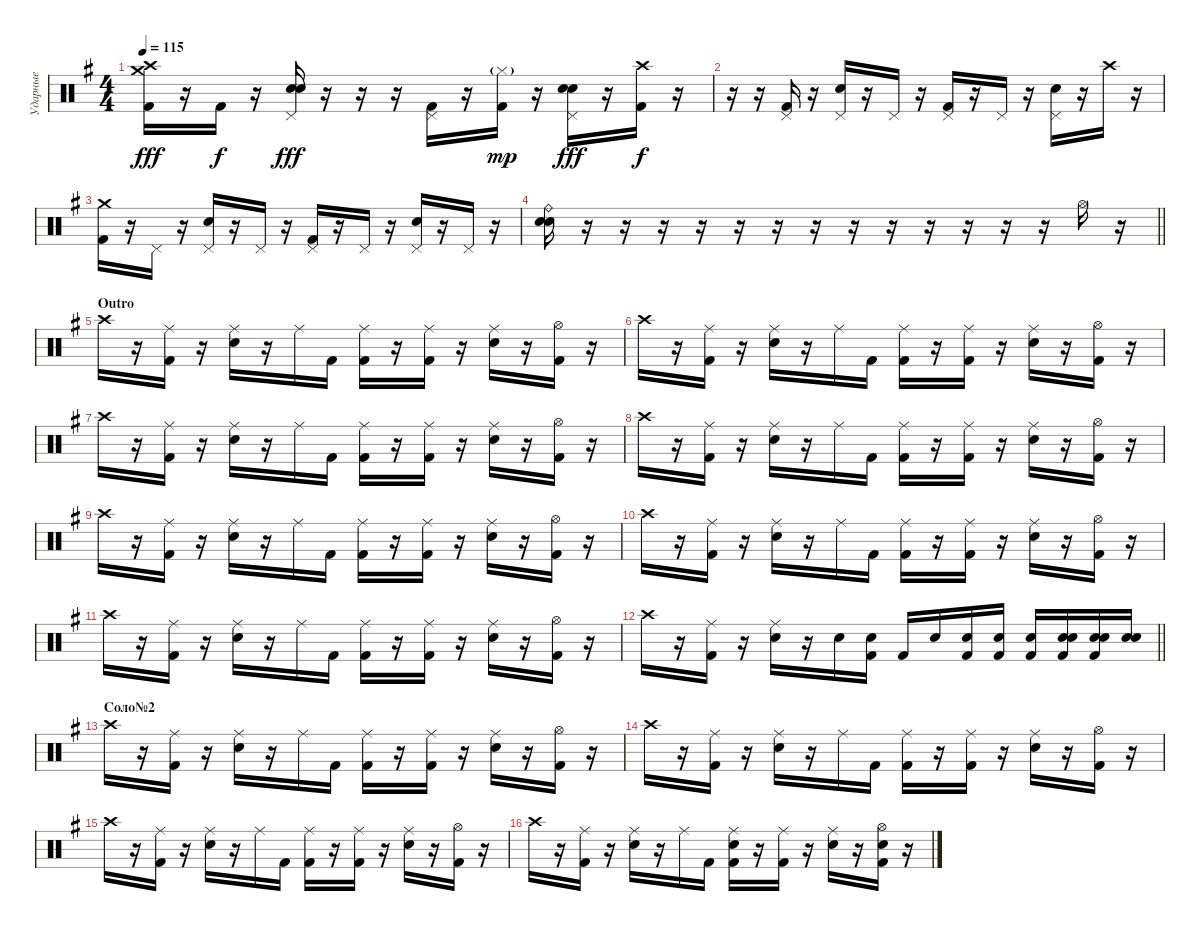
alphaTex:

\track ("Ударные" "Ударные") {instrument percussion}
\staff {score}
\articulation defaults
\ts (4 4)
\tempo 115
\clef neutral
\ks g
("Crash high (hit)" "Crash medium (hit)" "Kick (hit) 2").16{dy fff volume 16} r.16 "Kick (hit) 2".16{dy f} r.16 ("Pedal Hi-Hat (hit)" "Electric Snare (hit)" "Electric Snare (hit)").16{dy fff} r.16 r.16 r.16 ("Pedal Hi-Hat (hit)" "Kick (hit) 2").16 r.16 ("Hi-Hat (closed)"{g} "Kick (hit) 2").16{dy mp} r.16 ("Pedal Hi-Hat (hit)" "Electric Snare (hit)" "Electric Snare (hit)").16{dy fff} r.16 ("Crash high (hit)" "Kick (hit) 2").16{dy f} r.16 |
r.16 r.16 ("Pedal Hi-Hat (hit)" "Kick (hit) 2").16 r.16 ("Pedal Hi-Hat (hit)" "Electric Snare (hit)").16 r.16 "Pedal Hi-Hat (hit)".16 r.16 ("Pedal Hi-Hat (hit)" "Kick (hit) 2").16 r.16 "Pedal Hi-Hat (hit)".16 r.16 ("Pedal Hi-Hat (hit)" "Electric Snare (hit)").16 r.16 "Crash high (hit)".16 r.16 |
("Crash medium (hit)" "Kick (hit) 2").16 r.16 "Pedal Hi-Hat (hit)".16 r.16 ("Pedal Hi-Hat (hit)" "Electric Snare (hit)").16 r.16 "Pedal Hi-Hat (hit)".16 r.16 ("Pedal Hi-Hat (hit)" "Kick (hit) 2").16 r.16 "Pedal Hi-Hat (hit)".16 r.16 ("Pedal Hi-Hat (hit)" "Electric Snare (hit)").16 r.16 "Pedal Hi-Hat (hit)".16 r.16 |
\barLineRight lightlight
("Ride (bell)" "Electric Snare (hit)" "Snare (hit) 2").16 r.16 r.16 r.16 r.16 r.16 r.16 r.16 r.16 r.16 r.16 r.16 r.16 r.16 "Hi-Hat (open)".16 r.16 |
\section ("" "Outro")
"Crash high (hit)".16 r.16 ("Ride (middle)" "Kick (hit) 2").16 r.16 ("Ride (middle)" "Electric Snare (hit)").16 r.16 "Ride (middle)".16 "Kick (hit) 2".16 ("Ride (middle)" "Kick (hit) 2").16 r.16 ("Ride (middle)" "Kick (hit) 2").16 r.16 ("Ride (middle)" "Electric Snare (hit)").16 r.16 ("Hi-Hat (open)" "Kick (hit) 2").16 r.16 |
"Crash high (hit)".16 r.16 ("Ride (middle)" "Kick (hit) 2").16 r.16 ("Ride (middle)" "Electric Snare (hit)").16 r.16 "Ride (middle)".16 "Kick (hit) 2".16 ("Ride (middle)" "Kick (hit) 2").16 r.16 ("Ride (middle)" "Kick (hit) 2").16 r.16 ("Ride (middle)" "Electric Snare (hit)").16 r.16 ("Hi-Hat (open)" "Kick (hit) 2").16 r.16 |
"Crash high (hit)".16 r.16 ("Ride (middle)" "Kick (hit) 2").16 r.16 ("Ride (middle)" "Electric Snare (hit)").16 r.16 "Ride (middle)".16 "Kick (hit) 2".16 ("Ride (middle)" "Kick (hit) 2").16 r.16 ("Ride (middle)" "Kick (hit) 2").16 r.16 ("Ride (middle)" "Electric Snare (hit)").16 r.16 ("Hi-Hat (open)" "Kick (hit) 2").16 r.16 |
"Crash high (hit)".16 r.16 ("Ride (middle)" "Kick (hit) 2").16 r.16 ("Ride (middle)" "Electric Snare (hit)").16 r.16 "Ride (middle)".16 "Kick (hit) 2".16 ("Ride (middle)" "Kick (hit) 2").16 r.16 ("Ride (middle)" "Kick (hit) 2").16 r.16 ("Ride (middle)" "Electric Snare (hit)").16 r.16 ("Hi-Hat (open)" "Kick (hit) 2").16 r.16 |
"Crash high (hit)".16 r.16 ("Ride (middle)" "Kick (hit) 2").16 r.16 ("Ride (middle)" "Electric Snare (hit)").16 r.16 "Ride (middle)".16 "Kick (hit) 2".16 ("Ride (middle)" "Kick (hit) 2").16 r.16 ("Ride (middle)" "Kick (hit) 2").16 r.16 ("Ride (middle)" "Electric Snare (hit)").16 r.16 ("Hi-Hat (open)" "Kick (hit) 2").16 r.16 |
"Crash high (hit)".16 r.16 ("Ride (middle)" "Kick (hit) 2").16 r.16 ("Ride (middle)" "Electric Snare (hit)").16 r.16 "Ride (middle)".16 "Kick (hit) 2".16 ("Ride (middle)" "Kick (hit) 2").16 r.16 ("Ride (middle)" "Kick (hit) 2").16 r.16 ("Ride (middle)" "Electric Snare (hit)").16 r.16 ("Hi-Hat (open)" "Kick (hit) 2").16 r.16 |
"Crash high (hit)".16 r.16 ("Ride (middle)" "Kick (hit) 2").16 r.16 ("Ride (middle)" "Electric Snare (hit)").16 r.16 "Ride (middle)".16 "Kick (hit) 2".16 ("Ride (middle)" "Kick (hit) 2").16 r.16 ("Ride (middle)" "Kick (hit) 2").16 r.16 ("Ride (middle)" "Electric Snare (hit)").16 r.16 ("Hi-Hat (open)" "Kick (hit) 2").16 r.16 |
\barLineRight lightlight "Crash high (hit)".16
r.16 ("Ride (middle)" "Kick (hit) 2").16 r.16 ("Ride (middle)" "Electric Snare (hit)").16 r.16 "Electric Snare (hit)".16 ("Electric Snare (hit)" "Kick (hit) 2").16 "Kick (hit) 2".16 "Electric Snare (hit)".16 ("Electric Snare (hit)" "Kick (hit) 2").16 ("Electric Snare (hit)" "Kick (hit) 2").16 ("Snare (hit) 2" "Kick (hit) 2").16 ("Electric Snare (hit)" "Snare (hit) 2" "Kick (hit) 2").16 ("Electric Snare (hit)" "Snare (hit) 2" "Kick (hit) 2").16 ("Electric Snare (hit)" "Snare (hit) 2").16 |
\section ("" "Соло№2")
"Crash high (hit)".16 r.16 ("Ride (middle)" "Kick (hit) 2").16 r.16 ("Ride (middle)" "Electric Snare (hit)").16 r.16 "Ride (middle)".16 "Kick (hit) 2".16 ("Ride (middle)" "Kick (hit) 2").16 r.16 ("Ride (middle)" "Kick (hit) 2").16 r.16 ("Ride (middle)" "Electric Snare (hit)").16 r.16 ("Hi-Hat (open)" "Kick (hit) 2").16 r.16 |
"Crash high (hit)".16 r.16 ("Ride (middle)" "Kick (hit) 2").16 r.16 ("Ride (middle)" "Electric Snare (hit)").16 r.16 "Ride (middle)".16 "Kick (hit) 2".16 ("Ride (middle)" "Kick (hit) 2").16 r.16 ("Ride (middle)" "Kick (hit) 2").16 r.16 ("Ride (middle)" "Electric Snare (hit)").16 r.16 ("Hi-Hat (open)" "Kick (hit) 2").16 r.16 |
"Crash high (hit)".16 r.16 ("Ride (middle)" "Kick (hit) 2").16 r.16 ("Ride (middle)" "Electric Snare (hit)").16 r.16 "Ride (middle)".16 "Kick (hit) 2".16 ("Ride (middle)" "Kick (hit) 2").16 r.16 ("Ride (middle)" "Kick (hit) 2").16 r.16 ("Ride (middle)" "Electric Snare (hit)").16 r.16 ("Hi-Hat (open)" "Kick (hit) 2").16 r.16 |
"Crash high (hit)".16 r.16 ("Ride (middle)" "Kick (hit) 2").16 r.16 ("Ride (middle)" "Electric Snare (hit)").16 r.16 "Ride (middle)".16 "Kick (hit) 2".16 ("Ride (middle)" "Electric Snare (hit)" "Kick (hit) 2").16 r.16 ("Ride (middle)" "Kick (hit) 2").16 r.16 ("Ride (middle)" "Electric Snare (hit)").16 r.16 ("Hi-Hat (open)" "Electric Snare (hit)" "Kick (hit) 2").16 r.16
